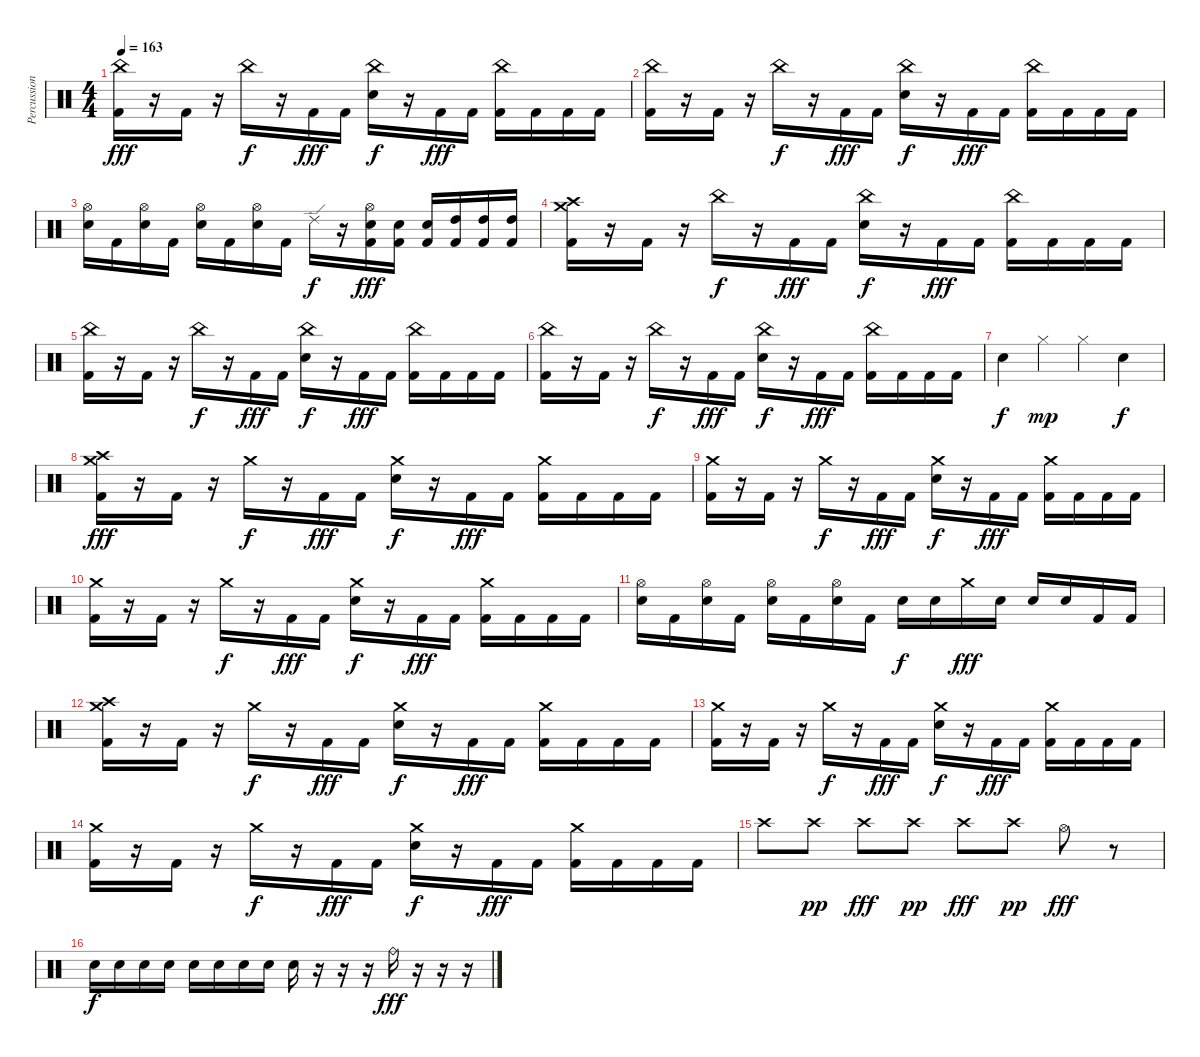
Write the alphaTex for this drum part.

\track ("Percussion" "Percussion") {instrument percussion}
\staff {score}
\articulation defaults
\ts (4 4)
\tempo 163
\clef neutral
\ks c
("China (hit)" "Kick (hit) 2").16{dy fff} r.16 "Kick (hit) 2".16 r.16 "China (hit)".16{dy f} r.16 "Kick (hit) 2".16{dy fff} "Kick (hit) 2".16 ("China (hit)" "Electric Snare (hit)").16{dy f} r.16 "Kick (hit) 2".16{dy fff} "Kick (hit) 2".16 ("China (hit)" "Kick (hit) 2").16 "Kick (hit) 2".16 "Kick (hit) 2".16 "Kick (hit) 2".16 |
("China (hit)" "Kick (hit) 2").16 r.16 "Kick (hit) 2".16 r.16 "China (hit)".16{dy f} r.16 "Kick (hit) 2".16{dy fff} "Kick (hit) 2".16 ("China (hit)" "Electric Snare (hit)").16{dy f} r.16 "Kick (hit) 2".16{dy fff} "Kick (hit) 2".16 ("China (hit)" "Kick (hit) 2").16 "Kick (hit) 2".16 "Kick (hit) 2".16 "Kick (hit) 2".16 |
("Hi-Hat (open)" "Electric Snare (hit)").16 "Kick (hit) 2".16 ("Hi-Hat (open)" "Electric Snare (hit)").16 "Kick (hit) 2".16 ("Hi-Hat (open)" "Electric Snare (hit)").16 "Kick (hit) 2".16 ("Hi-Hat (open)" "Electric Snare (hit)").16 "Kick (hit) 2".16 "Ride (edge) 2".16{dy f} r.16 ("Hi-Hat (open)" "Electric Snare (hit)" "Kick (hit) 2").16{dy fff} ("Electric Snare (hit)" "Kick (hit) 2").16 ("Electric Snare (hit)" "Kick (hit) 2").16 ("High Tom (hit)" "Kick (hit) 2").16 ("High Tom (hit)" "Kick (hit) 2").16 ("High Tom (hit)" "Kick (hit) 2").16 |
("Crash high (hit)" "Crash medium (hit)" "Kick (hit) 2").16 r.16 "Kick (hit) 2".16 r.16 "China (hit)".16{dy f} r.16 "Kick (hit) 2".16{dy fff} "Kick (hit) 2".16 ("China (hit)" "Electric Snare (hit)").16{dy f} r.16 "Kick (hit) 2".16{dy fff} "Kick (hit) 2".16 ("China (hit)" "Kick (hit) 2").16 "Kick (hit) 2".16 "Kick (hit) 2".16 "Kick (hit) 2".16 |
("China (hit)" "Kick (hit) 2").16 r.16 "Kick (hit) 2".16 r.16 "China (hit)".16{dy f} r.16 "Kick (hit) 2".16{dy fff} "Kick (hit) 2".16 ("China (hit)" "Electric Snare (hit)").16{dy f} r.16 "Kick (hit) 2".16{dy fff} "Kick (hit) 2".16 ("China (hit)" "Kick (hit) 2").16 "Kick (hit) 2".16 "Kick (hit) 2".16 "Kick (hit) 2".16 |
("China (hit)" "Kick (hit) 2").16 r.16 "Kick (hit) 2".16 r.16 "China (hit)".16{dy f} r.16 "Kick (hit) 2".16{dy fff} "Kick (hit) 2".16 ("China (hit)" "Electric Snare (hit)").16{dy f} r.16 "Kick (hit) 2".16{dy fff} "Kick (hit) 2".16 ("China (hit)" "Kick (hit) 2").16 "Kick (hit) 2".16 "Kick (hit) 2".16 "Kick (hit) 2".16 |
"Electric Snare (hit)".4{dy f} "Hi-Hat (closed)".4{dy mp} "Hi-Hat (closed)".4 "Electric Snare (hit)".4{dy f} |
("Crash high (hit)" "Crash medium (hit)" "Kick (hit) 2").16{dy fff} r.16 "Kick (hit) 2".16 r.16 "Crash medium (hit)".16{dy f} r.16 "Kick (hit) 2".16{dy fff} "Kick (hit) 2".16 ("Crash medium (hit)" "Electric Snare (hit)").16{dy f} r.16 "Kick (hit) 2".16{dy fff} "Kick (hit) 2".16 ("Crash medium (hit)" "Kick (hit) 2").16 "Kick (hit) 2".16 "Kick (hit) 2".16 "Kick (hit) 2".16 |
("Crash medium (hit)" "Kick (hit) 2").16 r.16 "Kick (hit) 2".16 r.16 "Crash medium (hit)".16{dy f} r.16 "Kick (hit) 2".16{dy fff} "Kick (hit) 2".16 ("Crash medium (hit)" "Electric Snare (hit)").16{dy f} r.16 "Kick (hit) 2".16{dy fff} "Kick (hit) 2".16 ("Crash medium (hit)" "Kick (hit) 2").16 "Kick (hit) 2".16 "Kick (hit) 2".16 "Kick (hit) 2".16 |
("Crash medium (hit)" "Kick (hit) 2").16 r.16 "Kick (hit) 2".16 r.16 "Crash medium (hit)".16{dy f} r.16 "Kick (hit) 2".16{dy fff} "Kick (hit) 2".16 ("Crash medium (hit)" "Electric Snare (hit)").16{dy f} r.16 "Kick (hit) 2".16{dy fff} "Kick (hit) 2".16 ("Crash medium (hit)" "Kick (hit) 2").16 "Kick (hit) 2".16 "Kick (hit) 2".16 "Kick (hit) 2".16 |
("Hi-Hat (open)" "Electric Snare (hit)").16 "Kick (hit) 2".16 ("Hi-Hat (open)" "Electric Snare (hit)").16 "Kick (hit) 2".16 ("Hi-Hat (open)" "Electric Snare (hit)").16 "Kick (hit) 2".16 ("Hi-Hat (open)" "Electric Snare (hit)").16 "Kick (hit) 2".16 "Electric Snare (hit)".16{dy f} "Electric Snare (hit)".16 "Crash medium (hit)".16{dy fff} "Electric Snare (hit)".16 "Electric Snare (hit)".16 "Electric Snare (hit)".16 "Kick (hit) 2".16 "Kick (hit) 2".16 |
("Crash high (hit)" "Crash medium (hit)" "Kick (hit) 2").16 r.16 "Kick (hit) 2".16 r.16 "Crash medium (hit)".16{dy f} r.16 "Kick (hit) 2".16{dy fff} "Kick (hit) 2".16 ("Crash medium (hit)" "Electric Snare (hit)").16{dy f} r.16 "Kick (hit) 2".16{dy fff} "Kick (hit) 2".16 ("Crash medium (hit)" "Kick (hit) 2").16 "Kick (hit) 2".16 "Kick (hit) 2".16 "Kick (hit) 2".16 |
("Crash medium (hit)" "Kick (hit) 2").16 r.16 "Kick (hit) 2".16 r.16 "Crash medium (hit)".16{dy f} r.16 "Kick (hit) 2".16{dy fff} "Kick (hit) 2".16 ("Crash medium (hit)" "Electric Snare (hit)").16{dy f} r.16 "Kick (hit) 2".16{dy fff} "Kick (hit) 2".16 ("Crash medium (hit)" "Kick (hit) 2").16 "Kick (hit) 2".16 "Kick (hit) 2".16 "Kick (hit) 2".16 |
("Crash medium (hit)" "Kick (hit) 2").16 r.16 "Kick (hit) 2".16 r.16 "Crash medium (hit)".16{dy f} r.16 "Kick (hit) 2".16{dy fff} "Kick (hit) 2".16 ("Crash medium (hit)" "Electric Snare (hit)").16{dy f} r.16 "Kick (hit) 2".16{dy fff} "Kick (hit) 2".16 ("Crash medium (hit)" "Kick (hit) 2").16 "Kick (hit) 2".16 "Kick (hit) 2".16 "Kick (hit) 2".16 |
"Crash high (hit)".8 "Crash high (hit)".8{dy pp} "Crash high (hit)".8{dy fff} "Crash high (hit)".8{dy pp} "Crash high (hit)".8{dy fff} "Crash high (hit)".8{dy pp} "Hi-Hat (open)".8{dy fff} r.8 |
"Electric Snare (hit)".16{dy f} "Electric Snare (hit)".16 "Electric Snare (hit)".16 "Electric Snare (hit)".16 "Electric Snare (hit)".16 "Electric Snare (hit)".16 "Electric Snare (hit)".16 "Electric Snare (hit)".16 "Electric Snare (hit)".16 r.16 r.16 r.16 "Ride (bell)".16{dy fff} r.16 r.16 r.16
